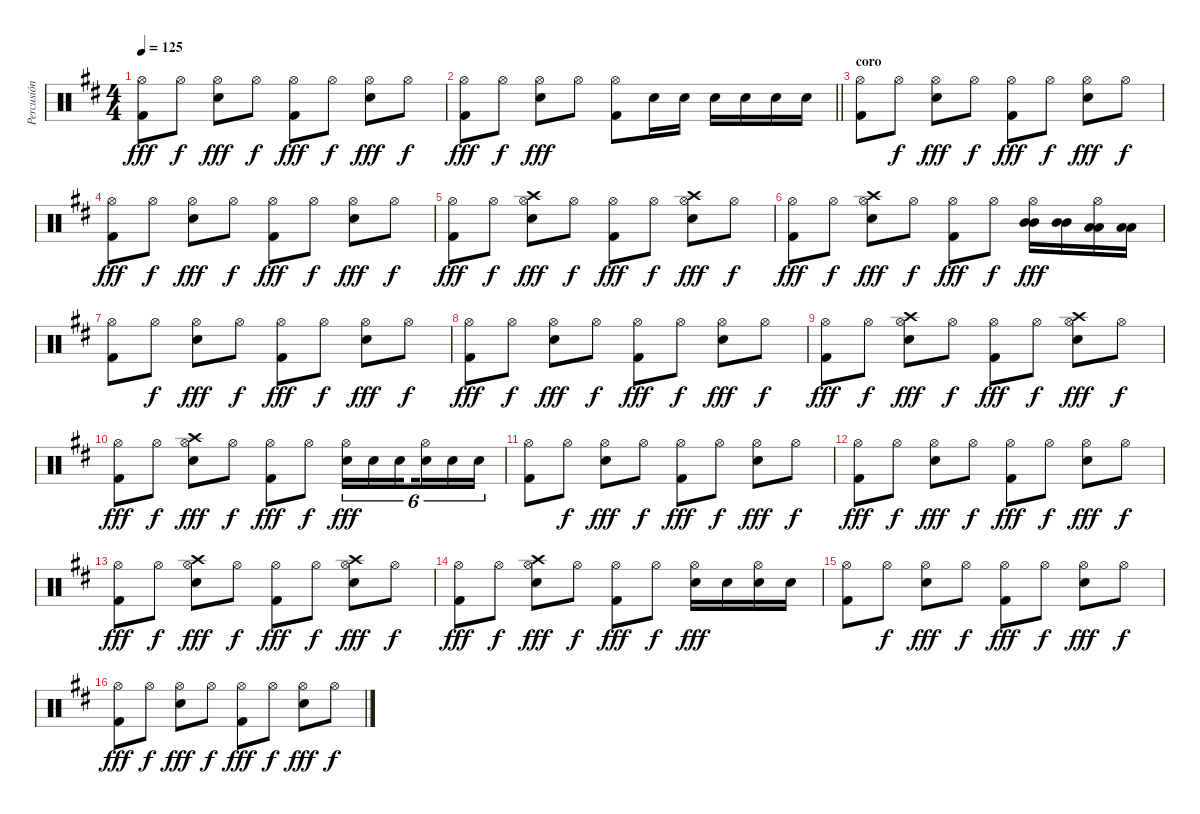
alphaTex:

\track ("Percusión" "Percusión") {instrument percussion}
\staff {score}
\articulation defaults
\ts (4 4)
\tempo 125
\clef neutral
\ks d
("Hi-Hat (open)" "Kick (hit) 2").8{dy fff} "Hi-Hat (open)".8{dy f} ("Hi-Hat (open)" "Electric Snare (hit)").8{dy fff} "Hi-Hat (open)".8{dy f} ("Hi-Hat (open)" "Kick (hit) 2").8{dy fff} "Hi-Hat (open)".8{dy f} ("Hi-Hat (open)" "Electric Snare (hit)").8{dy fff} "Hi-Hat (open)".8{dy f} |
\barLineRight lightlight
("Hi-Hat (open)" "Kick (hit) 2").8{dy fff} "Hi-Hat (open)".8{dy f} ("Hi-Hat (open)" "Electric Snare (hit)").8{dy fff} "Hi-Hat (open)".8 ("Hi-Hat (open)" "Kick (hit) 2").8 "Electric Snare (hit)".16 "Electric Snare (hit)".16 "Electric Snare (hit)".16 "Electric Snare (hit)".16 "Electric Snare (hit)".16 "Electric Snare (hit)".16 |
\section ("" "coro")
("Hi-Hat (open)" "Kick (hit) 2").8 "Hi-Hat (open)".8{dy f} ("Hi-Hat (open)" "Electric Snare (hit)").8{dy fff} "Hi-Hat (open)".8{dy f} ("Hi-Hat (open)" "Kick (hit) 2").8{dy fff} "Hi-Hat (open)".8{dy f} ("Hi-Hat (open)" "Electric Snare (hit)").8{dy fff} "Hi-Hat (open)".8{dy f} |
("Hi-Hat (open)" "Kick (hit) 2").8{dy fff} "Hi-Hat (open)".8{dy f} ("Hi-Hat (open)" "Electric Snare (hit)").8{dy fff} "Hi-Hat (open)".8{dy f} ("Hi-Hat (open)" "Kick (hit) 2").8{dy fff} "Hi-Hat (open)".8{dy f} ("Hi-Hat (open)" "Electric Snare (hit)").8{dy fff} "Hi-Hat (open)".8{dy f} |
("Hi-Hat (open)" "Kick (hit) 2").8{dy fff} "Hi-Hat (open)".8{dy f} ("Crash high (hit)" "Hi-Hat (open)" "Electric Snare (hit)").8{dy fff} "Hi-Hat (open)".8{dy f} ("Hi-Hat (open)" "Kick (hit) 2").8{dy fff} "Hi-Hat (open)".8{dy f} ("Crash high (hit)" "Hi-Hat (open)" "Electric Snare (hit)").8{dy fff} "Hi-Hat (open)".8{dy f} |
("Hi-Hat (open)" "Kick (hit) 2").8{dy fff} "Hi-Hat (open)".8{dy f} ("Crash high (hit)" "Hi-Hat (open)" "Electric Snare (hit)").8{dy fff} "Hi-Hat (open)".8{dy f} ("Hi-Hat (open)" "Kick (hit) 2").8{dy fff} "Hi-Hat (open)".8{dy f} ("Hi-Hat (open)" "Mid Tom (hit)" "Mid Tom (hit)").16{dy fff} ("Mid Tom (hit)" "Mid Tom (hit)").16 ("Hi-Hat (open)" "Low Tom (hit)" "Low Tom (hit)").16 ("Low Tom (hit)" "Low Tom (hit)").16 |
("Hi-Hat (open)" "Kick (hit) 2").8 "Hi-Hat (open)".8{dy f} ("Hi-Hat (open)" "Electric Snare (hit)").8{dy fff} "Hi-Hat (open)".8{dy f} ("Hi-Hat (open)" "Kick (hit) 2").8{dy fff} "Hi-Hat (open)".8{dy f} ("Hi-Hat (open)" "Electric Snare (hit)").8{dy fff} "Hi-Hat (open)".8{dy f} |
("Hi-Hat (open)" "Kick (hit) 2").8{dy fff} "Hi-Hat (open)".8{dy f} ("Hi-Hat (open)" "Electric Snare (hit)").8{dy fff} "Hi-Hat (open)".8{dy f} ("Hi-Hat (open)" "Kick (hit) 2").8{dy fff} "Hi-Hat (open)".8{dy f} ("Hi-Hat (open)" "Electric Snare (hit)").8{dy fff} "Hi-Hat (open)".8{dy f} |
("Hi-Hat (open)" "Kick (hit) 2").8{dy fff} "Hi-Hat (open)".8{dy f} ("Crash high (hit)" "Hi-Hat (open)" "Electric Snare (hit)").8{dy fff} "Hi-Hat (open)".8{dy f} ("Hi-Hat (open)" "Kick (hit) 2").8{dy fff} "Hi-Hat (open)".8{dy f} ("Crash high (hit)" "Hi-Hat (open)" "Electric Snare (hit)").8{dy fff} "Hi-Hat (open)".8{dy f} |
("Hi-Hat (open)" "Kick (hit) 2").8{dy fff} "Hi-Hat (open)".8{dy f} ("Crash high (hit)" "Hi-Hat (open)" "Electric Snare (hit)").8{dy fff} "Hi-Hat (open)".8{dy f} ("Hi-Hat (open)" "Kick (hit) 2").8{dy fff} "Hi-Hat (open)".8{dy f} ("Electric Snare (hit)" "Hi-Hat (open)").16{tu (6 4) dy fff} "Electric Snare (hit)".16{tu (6 4)} "Electric Snare (hit)".16{tu (6 4) beam splitsecondary} ("Electric Snare (hit)" "Hi-Hat (open)").16{tu (6 4)} "Electric Snare (hit)".16{tu (6 4)} "Electric Snare (hit)".16{tu (6 4)} |
("Hi-Hat (open)" "Kick (hit) 2").8 "Hi-Hat (open)".8{dy f} ("Hi-Hat (open)" "Electric Snare (hit)").8{dy fff} "Hi-Hat (open)".8{dy f} ("Hi-Hat (open)" "Kick (hit) 2").8{dy fff} "Hi-Hat (open)".8{dy f} ("Hi-Hat (open)" "Electric Snare (hit)").8{dy fff} "Hi-Hat (open)".8{dy f} |
("Hi-Hat (open)" "Kick (hit) 2").8{dy fff} "Hi-Hat (open)".8{dy f} ("Hi-Hat (open)" "Electric Snare (hit)").8{dy fff} "Hi-Hat (open)".8{dy f} ("Hi-Hat (open)" "Kick (hit) 2").8{dy fff} "Hi-Hat (open)".8{dy f} ("Hi-Hat (open)" "Electric Snare (hit)").8{dy fff} "Hi-Hat (open)".8{dy f} |
("Hi-Hat (open)" "Kick (hit) 2").8{dy fff} "Hi-Hat (open)".8{dy f} ("Crash high (hit)" "Hi-Hat (open)" "Electric Snare (hit)").8{dy fff} "Hi-Hat (open)".8{dy f} ("Hi-Hat (open)" "Kick (hit) 2").8{dy fff} "Hi-Hat (open)".8{dy f} ("Crash high (hit)" "Hi-Hat (open)" "Electric Snare (hit)").8{dy fff} "Hi-Hat (open)".8{dy f} |
("Hi-Hat (open)" "Kick (hit) 2").8{dy fff} "Hi-Hat (open)".8{dy f} ("Crash high (hit)" "Hi-Hat (open)" "Electric Snare (hit)").8{dy fff} "Hi-Hat (open)".8{dy f} ("Hi-Hat (open)" "Kick (hit) 2").8{dy fff} "Hi-Hat (open)".8{dy f} ("Hi-Hat (open)" "Electric Snare (hit)").16{dy fff} "Electric Snare (hit)".16 ("Hi-Hat (open)" "Electric Snare (hit)").16 "Electric Snare (hit)".16 |
("Hi-Hat (open)" "Kick (hit) 2").8 "Hi-Hat (open)".8{dy f} ("Hi-Hat (open)" "Electric Snare (hit)").8{dy fff} "Hi-Hat (open)".8{dy f} ("Hi-Hat (open)" "Kick (hit) 2").8{dy fff} "Hi-Hat (open)".8{dy f} ("Hi-Hat (open)" "Electric Snare (hit)").8{dy fff} "Hi-Hat (open)".8{dy f} |
("Hi-Hat (open)" "Kick (hit) 2").8{dy fff} "Hi-Hat (open)".8{dy f} ("Hi-Hat (open)" "Electric Snare (hit)").8{dy fff} "Hi-Hat (open)".8{dy f} ("Hi-Hat (open)" "Kick (hit) 2").8{dy fff} "Hi-Hat (open)".8{dy f} ("Hi-Hat (open)" "Electric Snare (hit)").8{dy fff} "Hi-Hat (open)".8{dy f}
